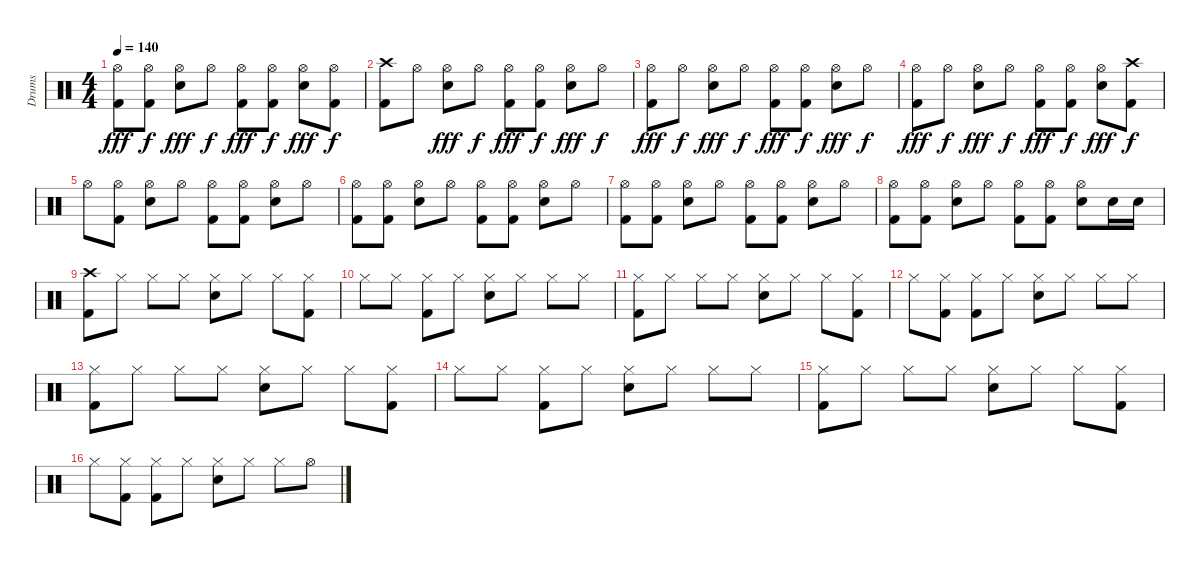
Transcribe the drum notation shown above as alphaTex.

\track ("Drums" "Drums") {instrument percussion}
\staff {score}
\articulation defaults
\ts (4 4)
\tempo 140
\clef neutral
\ks c
("Hi-Hat (open)" "Kick (hit) 2").8{dy fff} ("Hi-Hat (open)" "Kick (hit) 2").8{dy f} ("Hi-Hat (open)" "Snare (hit) 2").8{dy fff} "Hi-Hat (open)".8{dy f} ("Hi-Hat (open)" "Kick (hit) 2").8{dy fff} ("Hi-Hat (open)" "Kick (hit) 2").8{dy f} ("Hi-Hat (open)" "Snare (hit) 2").8{dy fff} ("Hi-Hat (open)" "Kick (hit) 2").8{dy f} |
("Crash high (hit)" "Kick (hit) 2").8 "Hi-Hat (open)".8 ("Hi-Hat (open)" "Snare (hit) 2").8{dy fff} "Hi-Hat (open)".8{dy f} ("Hi-Hat (open)" "Kick (hit) 2").8{dy fff} ("Hi-Hat (open)" "Kick (hit) 2").8{dy f} ("Hi-Hat (open)" "Snare (hit) 2").8{dy fff} "Hi-Hat (open)".8{dy f} |
("Hi-Hat (open)" "Kick (hit) 2").8{dy fff} "Hi-Hat (open)".8{dy f} ("Hi-Hat (open)" "Snare (hit) 2").8{dy fff} "Hi-Hat (open)".8{dy f} ("Hi-Hat (open)" "Kick (hit) 2").8{dy fff} ("Hi-Hat (open)" "Kick (hit) 2").8{dy f} ("Hi-Hat (open)" "Snare (hit) 2").8{dy fff} "Hi-Hat (open)".8{dy f} |
("Hi-Hat (open)" "Kick (hit) 2").8{dy fff} "Hi-Hat (open)".8{dy f} ("Hi-Hat (open)" "Snare (hit) 2").8{dy fff} "Hi-Hat (open)".8{dy f} ("Hi-Hat (open)" "Kick (hit) 2").8{dy fff} ("Hi-Hat (open)" "Kick (hit) 2").8{dy f} ("Hi-Hat (open)" "Snare (hit) 2").8{dy fff} ("Crash high (hit)" "Kick (hit) 2").8{dy f} |
"Hi-Hat (open)".8 ("Hi-Hat (open)" "Kick (hit) 2").8 ("Hi-Hat (open)" "Snare (hit) 2").8 "Hi-Hat (open)".8 ("Hi-Hat (open)" "Kick (hit) 2").8 ("Hi-Hat (open)" "Kick (hit) 2").8 ("Hi-Hat (open)" "Snare (hit) 2").8 "Hi-Hat (open)".8 |
("Hi-Hat (open)" "Kick (hit) 2").8 ("Hi-Hat (open)" "Kick (hit) 2").8 ("Hi-Hat (open)" "Snare (hit) 2").8 "Hi-Hat (open)".8 ("Hi-Hat (open)" "Kick (hit) 2").8 ("Hi-Hat (open)" "Kick (hit) 2").8 ("Hi-Hat (open)" "Snare (hit) 2").8 "Hi-Hat (open)".8 |
("Hi-Hat (open)" "Kick (hit) 2").8 ("Hi-Hat (open)" "Kick (hit) 2").8 ("Hi-Hat (open)" "Snare (hit) 2").8 "Hi-Hat (open)".8 ("Hi-Hat (open)" "Kick (hit) 2").8 ("Hi-Hat (open)" "Kick (hit) 2").8 ("Hi-Hat (open)" "Snare (hit) 2").8 "Hi-Hat (open)".8 |
("Hi-Hat (open)" "Kick (hit) 2").8 ("Hi-Hat (open)" "Kick (hit) 2").8 ("Hi-Hat (open)" "Snare (hit) 2").8 "Hi-Hat (open)".8 ("Hi-Hat (open)" "Kick (hit) 2").8 ("Hi-Hat (open)" "Kick (hit) 2").8 ("Hi-Hat (open)" "Snare (hit) 2").8 "Snare (hit) 2".16 "Snare (hit) 2".16 |
("Crash high (hit)" "Kick (hit) 2").8 "Hi-Hat (closed)".8 "Hi-Hat (closed)".8 "Hi-Hat (closed)".8 ("Hi-Hat (closed)" "Snare (hit) 2").8 "Hi-Hat (closed)".8 "Hi-Hat (closed)".8 ("Hi-Hat (closed)" "Kick (hit) 2").8 |
"Hi-Hat (closed)".8 "Hi-Hat (closed)".8 ("Hi-Hat (closed)" "Kick (hit) 2").8 "Hi-Hat (closed)".8 ("Hi-Hat (closed)" "Snare (hit) 2").8 "Hi-Hat (closed)".8 "Hi-Hat (closed)".8 "Hi-Hat (closed)".8 |
("Hi-Hat (closed)" "Kick (hit) 2").8 "Hi-Hat (closed)".8 "Hi-Hat (closed)".8 "Hi-Hat (closed)".8 ("Hi-Hat (closed)" "Snare (hit) 2").8 "Hi-Hat (closed)".8 "Hi-Hat (closed)".8 ("Hi-Hat (closed)" "Kick (hit) 2").8 |
"Hi-Hat (closed)".8 ("Hi-Hat (closed)" "Kick (hit) 2").8 ("Hi-Hat (closed)" "Kick (hit) 2").8 "Hi-Hat (closed)".8 ("Hi-Hat (closed)" "Snare (hit) 2").8 "Hi-Hat (closed)".8 "Hi-Hat (closed)".8 "Hi-Hat (closed)".8 |
("Hi-Hat (closed)" "Kick (hit) 2").8 "Hi-Hat (closed)".8 "Hi-Hat (closed)".8 "Hi-Hat (closed)".8 ("Hi-Hat (closed)" "Snare (hit) 2").8 "Hi-Hat (closed)".8 "Hi-Hat (closed)".8 ("Hi-Hat (closed)" "Kick (hit) 2").8 |
"Hi-Hat (closed)".8 "Hi-Hat (closed)".8 ("Hi-Hat (closed)" "Kick (hit) 2").8 "Hi-Hat (closed)".8 ("Hi-Hat (closed)" "Snare (hit) 2").8 "Hi-Hat (closed)".8 "Hi-Hat (closed)".8 "Hi-Hat (closed)".8 |
("Hi-Hat (closed)" "Kick (hit) 2").8 "Hi-Hat (closed)".8 "Hi-Hat (closed)".8 "Hi-Hat (closed)".8 ("Hi-Hat (closed)" "Snare (hit) 2").8 "Hi-Hat (closed)".8 "Hi-Hat (closed)".8 ("Hi-Hat (closed)" "Kick (hit) 2").8 |
"Hi-Hat (closed)".8 ("Hi-Hat (closed)" "Kick (hit) 2").8 ("Hi-Hat (closed)" "Kick (hit) 2").8 "Hi-Hat (closed)".8 ("Hi-Hat (closed)" "Snare (hit) 2").8 "Hi-Hat (closed)".8 "Hi-Hat (closed)".8 "Hi-Hat (open)".8
